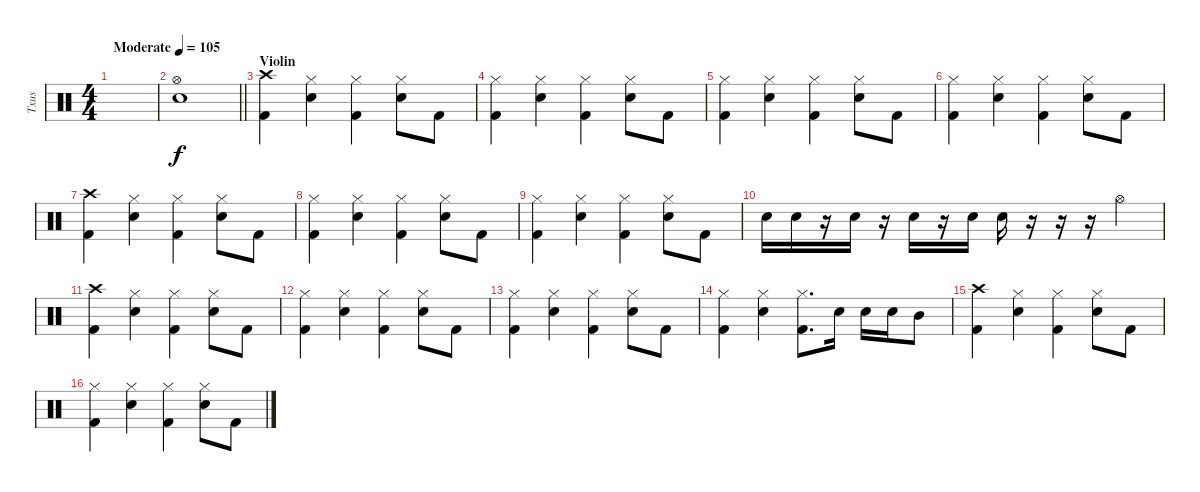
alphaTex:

\track ("Txus" "Txus") {instrument percussion}
\staff {score}
\articulation defaults
\ts (4 4)
\tempo (105 "Moderate")
\clef neutral
\ks c
|
\barLineRight lightlight
("Electric Snare (hit)" "Hi-Hat (open)").1 |
\section ("" "Violin")
("Kick (hit) 2" "Crash high (hit)").4 ("Electric Snare (hit)" "Hi-Hat (closed)").4 ("Kick (hit) 2" "Hi-Hat (closed)").4 ("Electric Snare (hit)" "Hi-Hat (closed)").8 "Kick (hit) 2".8 |
("Kick (hit) 2" "Hi-Hat (closed)").4 ("Electric Snare (hit)" "Hi-Hat (closed)").4 ("Kick (hit) 2" "Hi-Hat (closed)").4 ("Electric Snare (hit)" "Hi-Hat (closed)").8 "Kick (hit) 2".8 |
("Kick (hit) 2" "Hi-Hat (closed)").4 ("Electric Snare (hit)" "Hi-Hat (closed)").4 ("Kick (hit) 2" "Hi-Hat (closed)").4 ("Electric Snare (hit)" "Hi-Hat (closed)").8 "Kick (hit) 2".8 |
("Kick (hit) 2" "Hi-Hat (closed)").4 ("Electric Snare (hit)" "Hi-Hat (closed)").4 ("Kick (hit) 2" "Hi-Hat (closed)").4 ("Electric Snare (hit)" "Hi-Hat (closed)").8 "Kick (hit) 2".8 |
("Kick (hit) 2" "Crash high (hit)").4 ("Electric Snare (hit)" "Hi-Hat (closed)").4 ("Kick (hit) 2" "Hi-Hat (closed)").4 ("Electric Snare (hit)" "Hi-Hat (closed)").8 "Kick (hit) 2".8 |
("Kick (hit) 2" "Hi-Hat (closed)").4 ("Electric Snare (hit)" "Hi-Hat (closed)").4 ("Kick (hit) 2" "Hi-Hat (closed)").4 ("Electric Snare (hit)" "Hi-Hat (closed)").8 "Kick (hit) 2".8 |
("Kick (hit) 2" "Hi-Hat (closed)").4 ("Electric Snare (hit)" "Hi-Hat (closed)").4 ("Kick (hit) 2" "Hi-Hat (closed)").4 ("Electric Snare (hit)" "Hi-Hat (closed)").8 "Kick (hit) 2".8 |
"Electric Snare (hit)".16 "Electric Snare (hit)".16 r.16 "Electric Snare (hit)".16 r.16 "Electric Snare (hit)".16 r.16 "Electric Snare (hit)".16 "Electric Snare (hit)".16 r.16 r.16 r.16 "Hi-Hat (open)".4 |
("Kick (hit) 2" "Crash high (hit)").4 ("Electric Snare (hit)" "Hi-Hat (closed)").4 ("Kick (hit) 2" "Hi-Hat (closed)").4 ("Electric Snare (hit)" "Hi-Hat (closed)").8 "Kick (hit) 2".8 |
("Kick (hit) 2" "Hi-Hat (closed)").4 ("Electric Snare (hit)" "Hi-Hat (closed)").4 ("Kick (hit) 2" "Hi-Hat (closed)").4 ("Electric Snare (hit)" "Hi-Hat (closed)").8 "Kick (hit) 2".8 |
("Kick (hit) 2" "Hi-Hat (closed)").4 ("Electric Snare (hit)" "Hi-Hat (closed)").4 ("Kick (hit) 2" "Hi-Hat (closed)").4 ("Electric Snare (hit)" "Hi-Hat (closed)").8 "Kick (hit) 2".8 |
("Kick (hit) 2" "Hi-Hat (closed)").4 ("Electric Snare (hit)" "Hi-Hat (closed)").4 ("Kick (hit) 2" "Hi-Hat (closed)").8{d} "Electric Snare (hit)".16 "Electric Snare (hit)".16 "Electric Snare (hit)".16 "Mid Tom (hit)".8 |
("Kick (hit) 2" "Crash high (hit)").4 ("Electric Snare (hit)" "Hi-Hat (closed)").4 ("Kick (hit) 2" "Hi-Hat (closed)").4 ("Electric Snare (hit)" "Hi-Hat (closed)").8 "Kick (hit) 2".8 |
("Kick (hit) 2" "Hi-Hat (closed)").4 ("Electric Snare (hit)" "Hi-Hat (closed)").4 ("Kick (hit) 2" "Hi-Hat (closed)").4 ("Electric Snare (hit)" "Hi-Hat (closed)").8 "Kick (hit) 2".8
